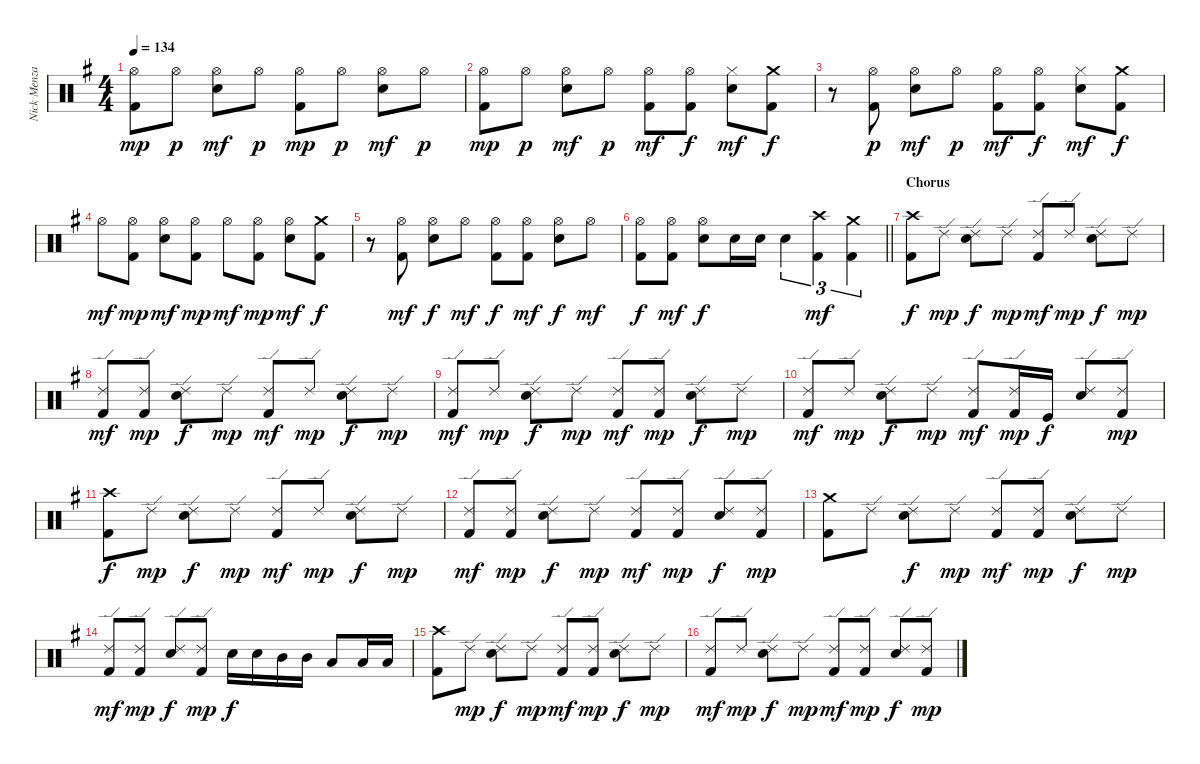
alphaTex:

\track ("Nick Menza" "Nick Menza") {instrument percussion}
\staff {score}
\articulation defaults
\ts (4 4)
\tempo 134
\clef neutral
\ks eminor
("Hi-Hat (open)" "Kick (hit) 2").8{dy mp} "Hi-Hat (open)".8{dy p} ("Hi-Hat (open)" "Snare (hit) 2").8{dy mf} "Hi-Hat (open)".8{dy p} ("Hi-Hat (open)" "Kick (hit) 2").8{dy mp} "Hi-Hat (open)".8{dy p} ("Hi-Hat (open)" "Snare (hit) 2").8{dy mf} "Hi-Hat (open)".8{dy p} |
("Hi-Hat (open)" "Kick (hit) 2").8{dy mp} "Hi-Hat (open)".8{dy p} ("Hi-Hat (open)" "Snare (hit) 2").8{dy mf} "Hi-Hat (open)".8{dy p} ("Hi-Hat (open)" "Kick (hit) 2").8{dy mf} ("Hi-Hat (open)" "Kick (hit) 2").8{dy f} ("Hi-Hat (closed)" "Snare (hit) 2").8{dy mf} ("Crash medium (hit)" "Kick (hit) 2").8{dy f} |
r.8 ("Hi-Hat (open)" "Kick (hit) 2").8{dy p} ("Hi-Hat (open)" "Snare (hit) 2").8{dy mf} "Hi-Hat (open)".8{dy p} ("Hi-Hat (open)" "Kick (hit) 2").8{dy mf} ("Hi-Hat (open)" "Kick (hit) 2").8{dy f} ("Hi-Hat (closed)" "Snare (hit) 2").8{dy mf} ("Crash medium (hit)" "Kick (hit) 2").8{dy f} |
"Hi-Hat (open)".8{dy mf} ("Hi-Hat (open)" "Kick (hit) 2").8{dy mp} ("Hi-Hat (open)" "Snare (hit) 2").8{dy mf} ("Hi-Hat (open)" "Kick (hit) 2").8{dy mp} "Hi-Hat (open)".8{dy mf} ("Hi-Hat (open)" "Kick (hit) 2").8{dy mp} ("Hi-Hat (open)" "Snare (hit) 2").8{dy mf} ("Crash medium (hit)" "Kick (hit) 2").8{dy f} |
r.8 ("Hi-Hat (open)" "Kick (hit) 2").8{dy mf} ("Hi-Hat (open)" "Snare (hit) 2").8{dy f} "Hi-Hat (open)".8{dy mf} ("Hi-Hat (open)" "Kick (hit) 2").8{dy f} ("Hi-Hat (open)" "Kick (hit) 2").8{dy mf} ("Hi-Hat (open)" "Snare (hit) 2").8{dy f} "Hi-Hat (open)".8{dy mf} |
\barLineRight lightlight
("Hi-Hat (open)" "Kick (hit) 2").8{dy f} ("Hi-Hat (open)" "Kick (hit) 2").8{dy mf} ("Hi-Hat (open)" "Snare (hit) 2").8{dy f} "Snare (hit) 2".16 "Snare (hit) 2".16 "Snare (hit) 2".4{tu (3 2)} ("Crash high (hit)" "Kick (hit) 2").4{tu (3 2) dy mf} ("Crash medium (hit)" "Kick (hit) 2").4{tu (3 2)} |
\section ("" "Chorus")
("Crash high (hit)" "Kick (hit) 2").8{dy f} "Ride (edge) 2".8{dy mp} ("Ride (edge) 2" "Snare (hit) 2").8{dy f} "Ride (edge) 2".8{dy mp} ("Ride (edge) 2" "Kick (hit) 2").8{dy mf} "Ride (edge) 2".8{dy mp} ("Ride (edge) 2" "Snare (hit) 2").8{dy f} "Ride (edge) 2".8{dy mp} |
("Ride (edge) 2" "Kick (hit) 2").8{dy mf} ("Ride (edge) 2" "Kick (hit) 2").8{dy mp} ("Ride (edge) 2" "Snare (hit) 2").8{dy f} "Ride (edge) 2".8{dy mp} ("Ride (edge) 2" "Kick (hit) 2").8{dy mf} "Ride (edge) 2".8{dy mp} ("Ride (edge) 2" "Snare (hit) 2").8{dy f} "Ride (edge) 2".8{dy mp} |
("Ride (edge) 2" "Kick (hit) 2").8{dy mf} "Ride (edge) 2".8{dy mp} ("Ride (edge) 2" "Snare (hit) 2").8{dy f} "Ride (edge) 2".8{dy mp} ("Ride (edge) 2" "Kick (hit) 2").8{dy mf} ("Ride (edge) 2" "Kick (hit) 2").8{dy mp} ("Ride (edge) 2" "Snare (hit) 2").8{dy f} "Ride (edge) 2".8{dy mp} |
("Ride (edge) 2" "Kick (hit) 2").8{dy mf} "Ride (edge) 2".8{dy mp} ("Ride (edge) 2" "Snare (hit) 2").8{dy f} "Ride (edge) 2".8{dy mp} ("Ride (edge) 2" "Kick (hit) 2").8{dy mf} ("Ride (edge) 2" "Kick (hit) 2").16{dy mp} "Kick (hit)".16{dy f} ("Ride (edge) 2" "Snare (hit) 2").8 ("Ride (edge) 2" "Kick (hit) 2").8{dy mp} |
("Crash high (hit)" "Kick (hit) 2").8{dy f} "Ride (edge) 2".8{dy mp} ("Ride (edge) 2" "Snare (hit) 2").8{dy f} "Ride (edge) 2".8{dy mp} ("Ride (edge) 2" "Kick (hit) 2").8{dy mf} "Ride (edge) 2".8{dy mp} ("Ride (edge) 2" "Snare (hit) 2").8{dy f} "Ride (edge) 2".8{dy mp} |
("Ride (edge) 2" "Kick (hit) 2").8{dy mf} ("Ride (edge) 2" "Kick (hit) 2").8{dy mp} ("Ride (edge) 2" "Snare (hit) 2").8{dy f} "Ride (edge) 2".8{dy mp} ("Ride (edge) 2" "Kick (hit) 2").8{dy mf} ("Ride (edge) 2" "Kick (hit) 2").8{dy mp} ("Ride (edge) 2" "Snare (hit) 2").8{dy f} ("Ride (edge) 2" "Kick (hit) 2").8{dy mp} |
("Crash medium (hit)" "Kick (hit) 2").8 "Ride (edge) 2".8 ("Ride (edge) 2" "Snare (hit) 2").8{dy f} "Ride (edge) 2".8{dy mp} ("Ride (edge) 2" "Kick (hit) 2").8{dy mf} ("Ride (edge) 2" "Kick (hit) 2").8{dy mp} ("Ride (edge) 2" "Snare (hit) 2").8{dy f} "Ride (edge) 2".8{dy mp} |
("Ride (edge) 2" "Kick (hit) 2").8{dy mf} ("Ride (edge) 2" "Kick (hit) 2").8{dy mp} ("Ride (edge) 2" "Snare (hit) 2").8{dy f} ("Ride (edge) 2" "Kick (hit) 2").8{dy mp} "Snare (hit) 2".16{dy f} "Snare (hit) 2".16 "Mid Tom (hit)".16 "Mid Tom (hit)".16 "Low Tom (hit)".8 "Low Floor Tom (hit)".16 "Low Floor Tom (hit)".16 |
("Crash high (hit)" "Kick (hit) 2").8 "Ride (edge) 2".8{dy mp} ("Ride (edge) 2" "Snare (hit) 2").8{dy f} "Ride (edge) 2".8{dy mp} ("Ride (edge) 2" "Kick (hit) 2").8{dy mf} ("Ride (edge) 2" "Kick (hit) 2").8{dy mp} ("Ride (edge) 2" "Snare (hit) 2").8{dy f} "Ride (edge) 2".8{dy mp} |
("Ride (edge) 2" "Kick (hit) 2").8{dy mf} "Ride (edge) 2".8{dy mp} ("Ride (edge) 2" "Snare (hit) 2").8{dy f} "Ride (edge) 2".8{dy mp} ("Ride (edge) 2" "Kick (hit) 2").8{dy mf} ("Ride (edge) 2" "Kick (hit) 2").8{dy mp} ("Ride (edge) 2" "Snare (hit) 2").8{dy f} ("Ride (edge) 2" "Kick (hit) 2").8{dy mp}
